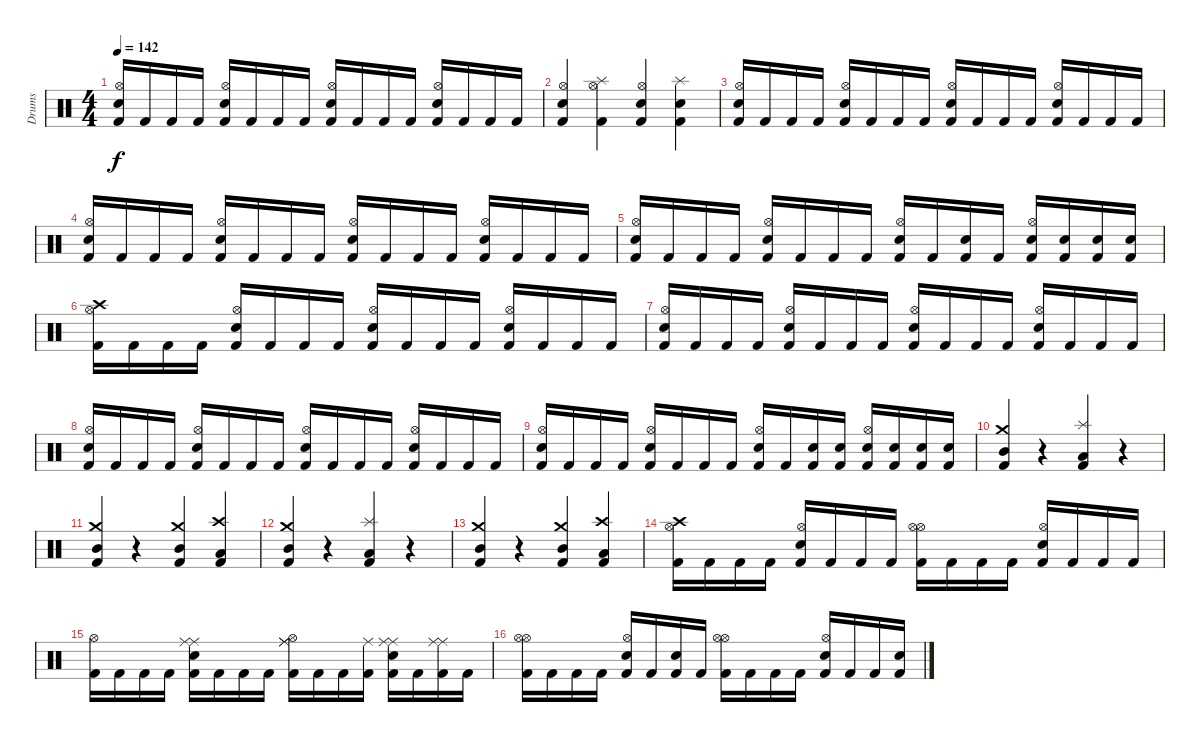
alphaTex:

\track ("Drums" "Drums") {instrument percussion}
\staff {score}
\articulation defaults
\ts (4 4)
\tempo 142
\clef neutral
\ks c
("Electric Snare (hit)" "Hi-Hat (open)" "Kick (hit) 2").16{dy f} "Kick (hit) 2".16 "Kick (hit) 2".16 "Kick (hit) 2".16 ("Electric Snare (hit)" "Hi-Hat (open)" "Kick (hit) 2").16 "Kick (hit) 2".16 "Kick (hit) 2".16 "Kick (hit) 2".16 ("Electric Snare (hit)" "Hi-Hat (open)" "Kick (hit) 2").16 "Kick (hit) 2".16 "Kick (hit) 2".16 "Kick (hit) 2".16 ("Electric Snare (hit)" "Hi-Hat (open)" "Kick (hit) 2").16 "Kick (hit) 2".16 "Kick (hit) 2".16 "Kick (hit) 2".16 |
("Hi-Hat (open)" "Electric Snare (hit)" "Kick (hit) 2").4 ("Splash (hit)" "Hi-Hat (open)" "Kick (hit) 2").4 ("Hi-Hat (open)" "Electric Snare (hit)" "Kick (hit) 2").4 ("Splash (hit)" "Electric Snare (hit)" "Kick (hit) 2").4 |
("Electric Snare (hit)" "Hi-Hat (open)" "Kick (hit) 2").16 "Kick (hit) 2".16 "Kick (hit) 2".16 "Kick (hit) 2".16 ("Electric Snare (hit)" "Hi-Hat (open)" "Kick (hit) 2").16 "Kick (hit) 2".16 "Kick (hit) 2".16 "Kick (hit) 2".16 ("Electric Snare (hit)" "Hi-Hat (open)" "Kick (hit) 2").16 "Kick (hit) 2".16 "Kick (hit) 2".16 "Kick (hit) 2".16 ("Electric Snare (hit)" "Hi-Hat (open)" "Kick (hit) 2").16 "Kick (hit) 2".16 "Kick (hit) 2".16 "Kick (hit) 2".16 |
("Electric Snare (hit)" "Hi-Hat (open)" "Kick (hit) 2").16 "Kick (hit) 2".16 "Kick (hit) 2".16 "Kick (hit) 2".16 ("Electric Snare (hit)" "Hi-Hat (open)" "Kick (hit) 2").16 "Kick (hit) 2".16 "Kick (hit) 2".16 "Kick (hit) 2".16 ("Electric Snare (hit)" "Hi-Hat (open)" "Kick (hit) 2").16 "Kick (hit) 2".16 "Kick (hit) 2".16 "Kick (hit) 2".16 ("Electric Snare (hit)" "Hi-Hat (open)" "Kick (hit) 2").16 "Kick (hit) 2".16 "Kick (hit) 2".16 "Kick (hit) 2".16 |
("Electric Snare (hit)" "Hi-Hat (open)" "Kick (hit) 2").16 "Kick (hit) 2".16 "Kick (hit) 2".16 "Kick (hit) 2".16 ("Electric Snare (hit)" "Hi-Hat (open)" "Kick (hit) 2").16 "Kick (hit) 2".16 "Kick (hit) 2".16 "Kick (hit) 2".16 ("Electric Snare (hit)" "Hi-Hat (open)" "Kick (hit) 2").16 "Kick (hit) 2".16 ("Electric Snare (hit)" "Kick (hit) 2").16 "Kick (hit) 2".16 ("Electric Snare (hit)" "Hi-Hat (open)" "Kick (hit) 2").16 ("Electric Snare (hit)" "Kick (hit) 2").16 ("Electric Snare (hit)" "Kick (hit) 2").16 ("Electric Snare (hit)" "Kick (hit) 2").16 |
("Crash high (hit)" "Hi-Hat (open)" "Kick (hit) 2").16 "Kick (hit) 2".16 "Kick (hit) 2".16 "Kick (hit) 2".16 ("Electric Snare (hit)" "Hi-Hat (open)" "Kick (hit) 2").16 "Kick (hit) 2".16 "Kick (hit) 2".16 "Kick (hit) 2".16 ("Electric Snare (hit)" "Hi-Hat (open)" "Kick (hit) 2").16 "Kick (hit) 2".16 "Kick (hit) 2".16 "Kick (hit) 2".16 ("Electric Snare (hit)" "Hi-Hat (open)" "Kick (hit) 2").16 "Kick (hit) 2".16 "Kick (hit) 2".16 "Kick (hit) 2".16 |
("Electric Snare (hit)" "Hi-Hat (open)" "Kick (hit) 2").16 "Kick (hit) 2".16 "Kick (hit) 2".16 "Kick (hit) 2".16 ("Electric Snare (hit)" "Hi-Hat (open)" "Kick (hit) 2").16 "Kick (hit) 2".16 "Kick (hit) 2".16 "Kick (hit) 2".16 ("Electric Snare (hit)" "Hi-Hat (open)" "Kick (hit) 2").16 "Kick (hit) 2".16 "Kick (hit) 2".16 "Kick (hit) 2".16 ("Electric Snare (hit)" "Hi-Hat (open)" "Kick (hit) 2").16 "Kick (hit) 2".16 "Kick (hit) 2".16 "Kick (hit) 2".16 |
("Electric Snare (hit)" "Hi-Hat (open)" "Kick (hit) 2").16 "Kick (hit) 2".16 "Kick (hit) 2".16 "Kick (hit) 2".16 ("Electric Snare (hit)" "Hi-Hat (open)" "Kick (hit) 2").16 "Kick (hit) 2".16 "Kick (hit) 2".16 "Kick (hit) 2".16 ("Electric Snare (hit)" "Hi-Hat (open)" "Kick (hit) 2").16 "Kick (hit) 2".16 "Kick (hit) 2".16 "Kick (hit) 2".16 ("Electric Snare (hit)" "Hi-Hat (open)" "Kick (hit) 2").16 "Kick (hit) 2".16 "Kick (hit) 2".16 "Kick (hit) 2".16 |
("Electric Snare (hit)" "Hi-Hat (open)" "Kick (hit) 2").16 "Kick (hit) 2".16 "Kick (hit) 2".16 "Kick (hit) 2".16 ("Electric Snare (hit)" "Hi-Hat (open)" "Kick (hit) 2").16 "Kick (hit) 2".16 "Kick (hit) 2".16 "Kick (hit) 2".16 ("Electric Snare (hit)" "Hi-Hat (open)" "Kick (hit) 2").16 "Kick (hit) 2".16 ("Electric Snare (hit)" "Kick (hit) 2").16 ("Electric Snare (hit)" "Kick (hit) 2").16 ("Electric Snare (hit)" "Hi-Hat (open)" "Kick (hit) 2").16 ("Electric Snare (hit)" "Kick (hit) 2").16 ("Electric Snare (hit)" "Kick (hit) 2").16 ("Electric Snare (hit)" "Kick (hit) 2").16 |
("Crash medium (hit)" "Mid Tom (hit)" "Kick (hit) 2").4 r.4 ("Splash (hit)" "Low Tom (hit)" "Kick (hit) 2").4 r.4 |
("Crash medium (hit)" "Mid Tom (hit)" "Kick (hit) 2").4 r.4 ("Crash medium (hit)" "Mid Tom (hit)" "Kick (hit) 2").4 ("Crash high (hit)" "Low Tom (hit)" "Kick (hit) 2").4 |
("Crash medium (hit)" "Mid Tom (hit)" "Kick (hit) 2").4 r.4 ("Splash (hit)" "Low Tom (hit)" "Kick (hit) 2").4 r.4 |
("Crash medium (hit)" "Mid Tom (hit)" "Kick (hit) 2").4 r.4 ("Crash medium (hit)" "Mid Tom (hit)" "Kick (hit) 2").4 ("Crash high (hit)" "Low Tom (hit)" "Kick (hit) 2").4 |
("Crash high (hit)" "Hi-Hat (open)" "Kick (hit) 2").16 "Kick (hit) 2".16 "Kick (hit) 2".16 "Kick (hit) 2".16 ("Hi-Hat (open)" "Electric Snare (hit)" "Kick (hit) 2").16 "Kick (hit) 2".16 "Kick (hit) 2".16 "Kick (hit) 2".16 ("Hi-Hat (open)" "Hi-Hat (open)" "Kick (hit) 2").16 "Kick (hit) 2".16 "Kick (hit) 2".16 "Kick (hit) 2".16 ("Hi-Hat (open)" "Electric Snare (hit)" "Kick (hit) 2").16 "Kick (hit) 2".16 "Kick (hit) 2".16 "Kick (hit) 2".16 |
("Hi-Hat (open)" "Kick (hit) 2").16 "Kick (hit) 2".16 "Kick (hit) 2".16 "Kick (hit) 2".16 ("Ride (middle)" "Ride (middle)" "Electric Snare (hit)" "Kick (hit) 2").16 "Kick (hit) 2".16 "Kick (hit) 2".16 "Kick (hit) 2".16 ("Ride (middle)" "Ride (middle)" "Hi-Hat (open)" "Kick (hit) 2").16 "Kick (hit) 2".16 "Kick (hit) 2".16 ("Ride (middle)" "Kick (hit) 2").16 ("Ride (middle)" "Ride (middle)" "Electric Snare (hit)" "Kick (hit) 2").16 "Kick (hit) 2".16 ("Ride (middle)" "Ride (middle)" "Kick (hit) 2").16 "Kick (hit) 2".16 |
("Hi-Hat (open)" "Hi-Hat (open)" "Kick (hit) 2").16 "Kick (hit) 2".16 "Kick (hit) 2".16 "Kick (hit) 2".16 ("Hi-Hat (open)" "Electric Snare (hit)" "Kick (hit) 2").16 "Kick (hit) 2".16 ("Electric Snare (hit)" "Kick (hit) 2").16 "Kick (hit) 2".16 ("Hi-Hat (open)" "Hi-Hat (open)" "Kick (hit) 2").16 "Kick (hit) 2".16 "Kick (hit) 2".16 "Kick (hit) 2".16 ("Hi-Hat (open)" "Electric Snare (hit)" "Kick (hit) 2").16 "Kick (hit) 2".16 "Kick (hit) 2".16 ("Electric Snare (hit)" "Kick (hit) 2").16
